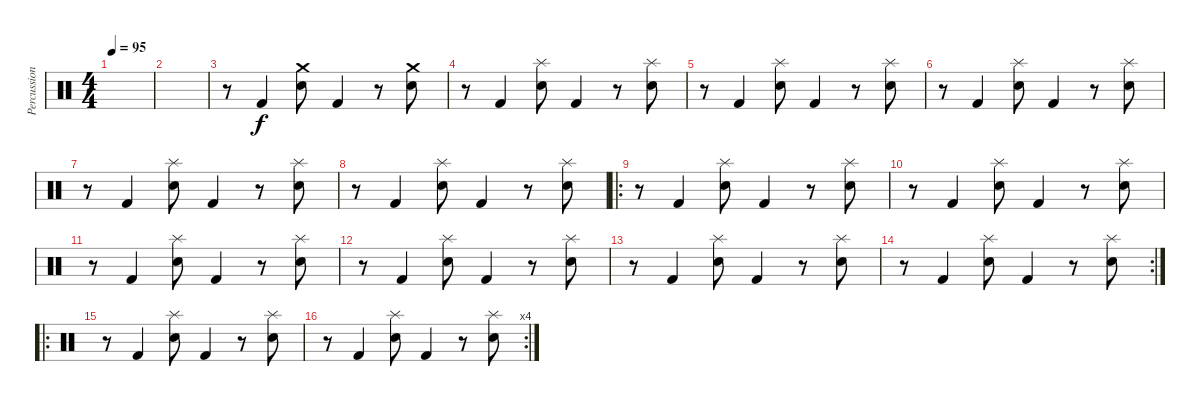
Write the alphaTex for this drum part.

\track ("Percussions" "Percussion") {instrument percussion}
\staff {score}
\articulation defaults
\ts (4 4)
\tempo 95
\clef neutral
\ks c
|
|
r.8 "Kick (hit) 2".4 ("Snare (hit) 2" "Crash medium (hit)").8 "Kick (hit) 2".4 r.8 ("Snare (hit) 2" "Crash medium (hit)").8 |
r.8 "Kick (hit) 2".4 ("Snare (hit) 2" "Splash (hit)").8 "Kick (hit) 2".4 r.8 ("Snare (hit) 2" "Splash (hit)").8 |
r.8 "Kick (hit) 2".4 ("Snare (hit) 2" "Splash (hit)").8 "Kick (hit) 2".4 r.8 ("Snare (hit) 2" "Splash (hit)").8 |
r.8 "Kick (hit) 2".4 ("Snare (hit) 2" "Splash (hit)").8 "Kick (hit) 2".4 r.8 ("Snare (hit) 2" "Splash (hit)").8 |
r.8 "Kick (hit) 2".4 ("Snare (hit) 2" "Splash (hit)").8 "Kick (hit) 2".4 r.8 ("Snare (hit) 2" "Splash (hit)").8 |
r.8 "Kick (hit) 2".4 ("Snare (hit) 2" "Splash (hit)").8 "Kick (hit) 2".4 r.8 ("Snare (hit) 2" "Splash (hit)").8 |
\ro
r.8 "Kick (hit) 2".4 ("Snare (hit) 2" "Splash (hit)").8 "Kick (hit) 2".4 r.8 ("Snare (hit) 2" "Splash (hit)").8 |
r.8 "Kick (hit) 2".4 ("Snare (hit) 2" "Splash (hit)").8 "Kick (hit) 2".4 r.8 ("Snare (hit) 2" "Splash (hit)").8 |
r.8 "Kick (hit) 2".4 ("Snare (hit) 2" "Splash (hit)").8 "Kick (hit) 2".4 r.8 ("Snare (hit) 2" "Splash (hit)").8 |
r.8 "Kick (hit) 2".4 ("Snare (hit) 2" "Splash (hit)").8 "Kick (hit) 2".4 r.8 ("Snare (hit) 2" "Splash (hit)").8 |
r.8 "Kick (hit) 2".4 ("Snare (hit) 2" "Splash (hit)").8 "Kick (hit) 2".4 r.8 ("Snare (hit) 2" "Splash (hit)").8 |
\rc 2
r.8 "Kick (hit) 2".4 ("Snare (hit) 2" "Splash (hit)").8 "Kick (hit) 2".4 r.8 ("Snare (hit) 2" "Splash (hit)").8 |
\ro
r.8 "Kick (hit) 2".4 ("Snare (hit) 2" "Splash (hit)").8 "Kick (hit) 2".4 r.8 ("Snare (hit) 2" "Splash (hit)").8 |
\rc 4
r.8 "Kick (hit) 2".4 ("Snare (hit) 2" "Splash (hit)").8 "Kick (hit) 2".4 r.8 ("Snare (hit) 2" "Splash (hit)").8
